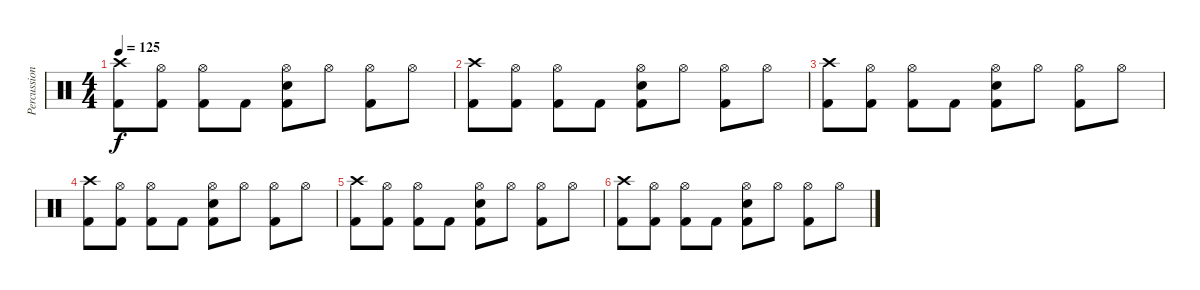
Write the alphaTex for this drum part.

\track ("Percussion" "Percussion") {instrument percussion}
\staff {score}
\articulation defaults
\ts (4 4)
\tempo 125
\clef neutral
\ks c
("Kick (hit) 2" "Crash high (hit)").8{dy f} ("Kick (hit) 2" "Hi-Hat (open)").8 ("Kick (hit) 2" "Hi-Hat (open)").8 "Kick (hit) 2".8 ("Kick (hit) 2" "Snare (hit) 2" "Hi-Hat (open)").8 "Hi-Hat (open)".8 ("Kick (hit) 2" "Hi-Hat (open)").8 "Hi-Hat (open)".8 |
("Kick (hit) 2" "Crash high (hit)").8 ("Kick (hit) 2" "Hi-Hat (open)").8 ("Kick (hit) 2" "Hi-Hat (open)").8 "Kick (hit) 2".8 ("Kick (hit) 2" "Snare (hit) 2" "Hi-Hat (open)").8 "Hi-Hat (open)".8 ("Kick (hit) 2" "Hi-Hat (open)").8 "Hi-Hat (open)".8 |
("Kick (hit) 2" "Crash high (hit)").8 ("Kick (hit) 2" "Hi-Hat (open)").8 ("Kick (hit) 2" "Hi-Hat (open)").8 "Kick (hit) 2".8 ("Kick (hit) 2" "Snare (hit) 2" "Hi-Hat (open)").8 "Hi-Hat (open)".8 ("Kick (hit) 2" "Hi-Hat (open)").8 "Hi-Hat (open)".8 |
("Kick (hit) 2" "Crash high (hit)").8 ("Kick (hit) 2" "Hi-Hat (open)").8 ("Kick (hit) 2" "Hi-Hat (open)").8 "Kick (hit) 2".8 ("Kick (hit) 2" "Snare (hit) 2" "Hi-Hat (open)").8 "Hi-Hat (open)".8 ("Kick (hit) 2" "Hi-Hat (open)").8 "Hi-Hat (open)".8 |
("Kick (hit) 2" "Crash high (hit)").8 ("Kick (hit) 2" "Hi-Hat (open)").8 ("Kick (hit) 2" "Hi-Hat (open)").8 "Kick (hit) 2".8 ("Kick (hit) 2" "Snare (hit) 2" "Hi-Hat (open)").8 "Hi-Hat (open)".8 ("Kick (hit) 2" "Hi-Hat (open)").8 "Hi-Hat (open)".8 |
("Kick (hit) 2" "Crash high (hit)").8 ("Kick (hit) 2" "Hi-Hat (open)").8 ("Kick (hit) 2" "Hi-Hat (open)").8 "Kick (hit) 2".8 ("Kick (hit) 2" "Snare (hit) 2" "Hi-Hat (open)").8 "Hi-Hat (open)".8 ("Kick (hit) 2" "Hi-Hat (open)").8 "Hi-Hat (open)".8
